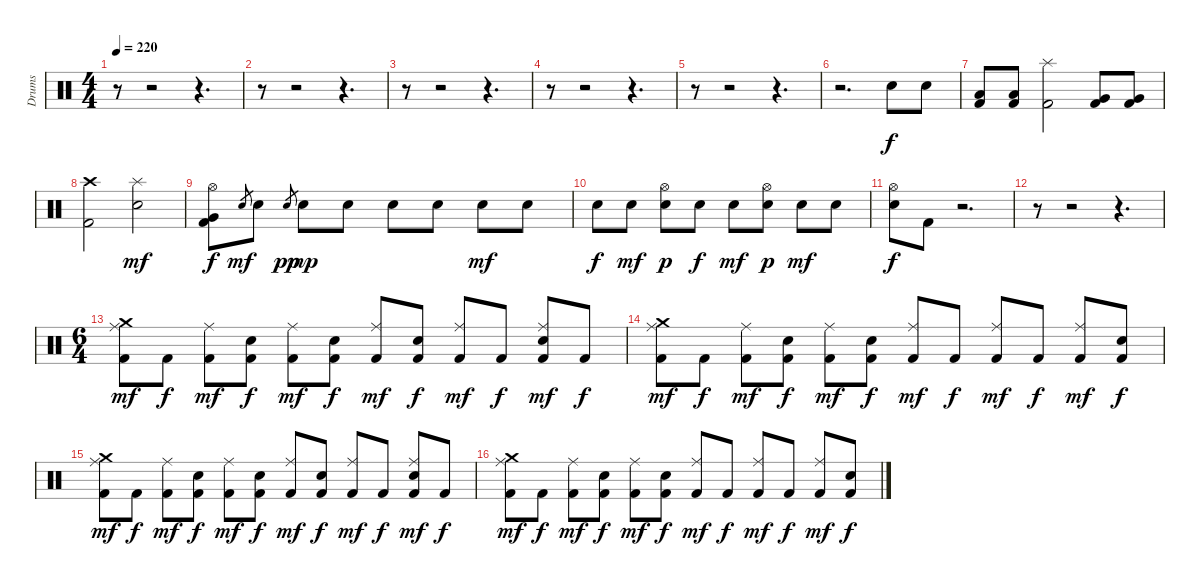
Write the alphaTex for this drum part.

\bracketExtendMode groupsimilarinstruments
\otherSystemsTrackNameOrientation horizontal
\track ("Drumkit" "Drums") {instrument percussion}
\staff {score}
\articulation defaults
\ts (4 4)
\tempo 220
\clef neutral
\ks c
r.8{dy mf beam Down} r.2{beam Down} r.4{d beam Down} |
r.8{beam Down} r.2{beam Down} r.4{d beam Down} |
r.8{beam Down} r.2{beam Down} r.4{d beam Down} |
r.8{beam Down} r.2{beam Down} r.4{d beam Down} |
r.8{beam Down} r.2{beam Down} r.4{d beam Down} |
r.2{d beam Down} "Snare (hit) 2".8{dy f beam Down} "Snare (hit) 2".8{beam Down} |
("Low Tom (hit)" "Kick (hit) 2").8{beam Up} ("Low Tom (hit)" "Kick (hit) 2").8{beam Up} ("Splash (hit)" "Kick (hit) 2").2{beam Down} ("Very Low Tom (hit)" "Kick (hit) 2").8{beam Up} ("Very Low Tom (hit)" "Kick (hit) 2").8{beam Up} |
("Crash high (hit)" "Kick (hit) 2").2{beam Down} ("Splash (hit)" "Snare (hit) 2").2{dy mf beam Down} |
("Hi-Hat (open)" "Very Low Tom (hit)" "Kick (hit) 2").8{dy f beam Down} "Snare (hit) 2".8{gr dy mf beam Up} "Snare (hit) 2".8{beam Down} "Snare (hit) 2".8{gr dy pp beam Up} "Snare (hit) 2".8{dy mp beam Down} "Snare (hit) 2".8{beam Down} "Snare (hit) 2".8{beam Down} "Snare (hit) 2".8{beam Down} "Snare (hit) 2".8{dy mf beam Down} "Snare (hit) 2".8{beam Down} |
"Snare (hit) 2".8{dy f beam Down} "Snare (hit) 2".8{dy mf beam Down} ("Snare (hit) 2" "Hi-Hat (open)").8{dy p beam Down} "Snare (hit) 2".8{dy f beam Down} "Snare (hit) 2".8{dy mf beam Down} ("Snare (hit) 2" "Hi-Hat (open)").8{dy p beam Down} "Snare (hit) 2".8{dy mf beam Down} "Snare (hit) 2".8{beam Down} |
("Hi-Hat (open)" "Snare (hit) 2").8{dy f beam Down} "Kick (hit) 2".8{beam Down} r.2{d beam Down} |
r.8{beam Down} r.2{beam Down} r.4{d beam Down} |
\ts (6 4)
("Ride (middle)" "Crash medium (hit)" "Kick (hit) 2").8{dy mf beam Down} "Kick (hit) 2".8{dy f beam Down} ("Ride (middle)" "Kick (hit) 2").8{dy mf beam Down} ("Snare (hit) 2" "Kick (hit) 2").8{dy f beam Down} ("Ride (middle)" "Kick (hit) 2").8{dy mf beam Down} ("Snare (hit) 2" "Kick (hit) 2").8{dy f beam Down} ("Ride (middle)" "Kick (hit) 2").8{dy mf beam Up} ("Snare (hit) 2" "Kick (hit) 2").8{dy f beam Up} ("Ride (middle)" "Kick (hit) 2").8{dy mf beam Up} "Kick (hit) 2".8{dy f beam Up} ("Ride (middle)" "Snare (hit) 2" "Kick (hit) 2").8{dy mf beam Up} "Kick (hit) 2".8{dy f beam Up} |
("Ride (middle)" "Crash medium (hit)" "Kick (hit) 2").8{dy mf beam Down} "Kick (hit) 2".8{dy f beam Down} ("Ride (middle)" "Kick (hit) 2").8{dy mf beam Down} ("Snare (hit) 2" "Kick (hit) 2").8{dy f beam Down} ("Ride (middle)" "Kick (hit) 2").8{dy mf beam Down} ("Snare (hit) 2" "Kick (hit) 2").8{dy f beam Down} ("Ride (middle)" "Kick (hit) 2").8{dy mf beam Up} "Kick (hit) 2".8{dy f beam Up} ("Ride (middle)" "Kick (hit) 2").8{dy mf beam Up} "Kick (hit) 2".8{dy f beam Up} ("Ride (middle)" "Kick (hit) 2").8{dy mf beam Up} ("Snare (hit) 2" "Kick (hit) 2").8{dy f beam Up} |
("Ride (middle)" "Crash medium (hit)" "Kick (hit) 2").8{dy mf beam Down} "Kick (hit) 2".8{dy f beam Down} ("Ride (middle)" "Kick (hit) 2").8{dy mf beam Down} ("Snare (hit) 2" "Kick (hit) 2").8{dy f beam Down} ("Ride (middle)" "Kick (hit) 2").8{dy mf beam Down} ("Snare (hit) 2" "Kick (hit) 2").8{dy f beam Down} ("Ride (middle)" "Kick (hit) 2").8{dy mf beam Up} ("Snare (hit) 2" "Kick (hit) 2").8{dy f beam Up} ("Ride (middle)" "Kick (hit) 2").8{dy mf beam Up} "Kick (hit) 2".8{dy f beam Up} ("Ride (middle)" "Snare (hit) 2" "Kick (hit) 2").8{dy mf beam Up} "Kick (hit) 2".8{dy f beam Up} |
("Ride (middle)" "Crash medium (hit)" "Kick (hit) 2").8{dy mf beam Down} "Kick (hit) 2".8{dy f beam Down} ("Ride (middle)" "Kick (hit) 2").8{dy mf beam Down} ("Snare (hit) 2" "Kick (hit) 2").8{dy f beam Down} ("Ride (middle)" "Kick (hit) 2").8{dy mf beam Down} ("Snare (hit) 2" "Kick (hit) 2").8{dy f beam Down} ("Ride (middle)" "Kick (hit) 2").8{dy mf beam Up} "Kick (hit) 2".8{dy f beam Up} ("Ride (middle)" "Kick (hit) 2").8{dy mf beam Up} "Kick (hit) 2".8{dy f beam Up} ("Ride (middle)" "Kick (hit) 2").8{dy mf beam Up} ("Snare (hit) 2" "Kick (hit) 2").8{dy f beam Up}
